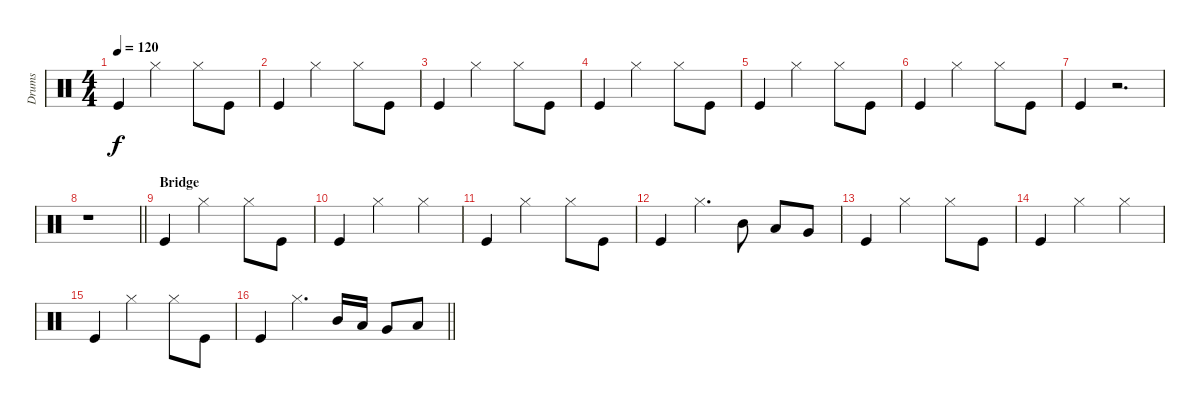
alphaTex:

\track ("Drums" "Drums") {instrument percussion}
\staff {score}
\articulation defaults
\ts (4 4)
\tempo 120
\clef neutral
\ks c "Kick (hit)".4{dy f} "Hi-Hat (closed)".2 "Hi-Hat (closed)".8 "Kick (hit)".8
|
"Kick (hit)".4 "Hi-Hat (closed)".2 "Hi-Hat (closed)".8 "Kick (hit)".8 |
"Kick (hit)".4 "Hi-Hat (closed)".2 "Hi-Hat (closed)".8 "Kick (hit)".8 |
"Kick (hit)".4 "Hi-Hat (closed)".2 "Hi-Hat (closed)".8 "Kick (hit)".8 |
"Kick (hit)".4 "Hi-Hat (closed)".2 "Hi-Hat (closed)".8 "Kick (hit)".8 |
"Kick (hit)".4 "Hi-Hat (closed)".2 "Hi-Hat (closed)".8 "Kick (hit)".8 |
"Kick (hit)".4 r.2{d} |
\barLineRight lightlight
r.1 |
\section ("" "Bridge")
"Kick (hit)".4 "Hi-Hat (closed)".2 "Hi-Hat (closed)".8 "Kick (hit)".8 |
"Kick (hit)".4 "Hi-Hat (closed)".2 "Hi-Hat (closed)".4 |
"Kick (hit)".4 "Hi-Hat (closed)".2 "Hi-Hat (closed)".8 "Kick (hit)".8 |
"Kick (hit)".4 "Hi-Hat (closed)".4{d} "Mid Tom (hit)".8 "Low Tom (hit)".8 "Very Low Tom (hit)".8 |
"Kick (hit)".4 "Hi-Hat (closed)".2 "Hi-Hat (closed)".8 "Kick (hit)".8 |
"Kick (hit)".4 "Hi-Hat (closed)".2 "Hi-Hat (closed)".4 |
"Kick (hit)".4 "Hi-Hat (closed)".2 "Hi-Hat (closed)".8 "Kick (hit)".8 |
\barLineRight lightlight "Kick (hit)".4 "Hi-Hat (closed)".4{d} "Mid Tom (hit)".16 "Low Tom (hit)".16 "Very Low Tom (hit)".8 "Low Floor Tom (hit)".8
